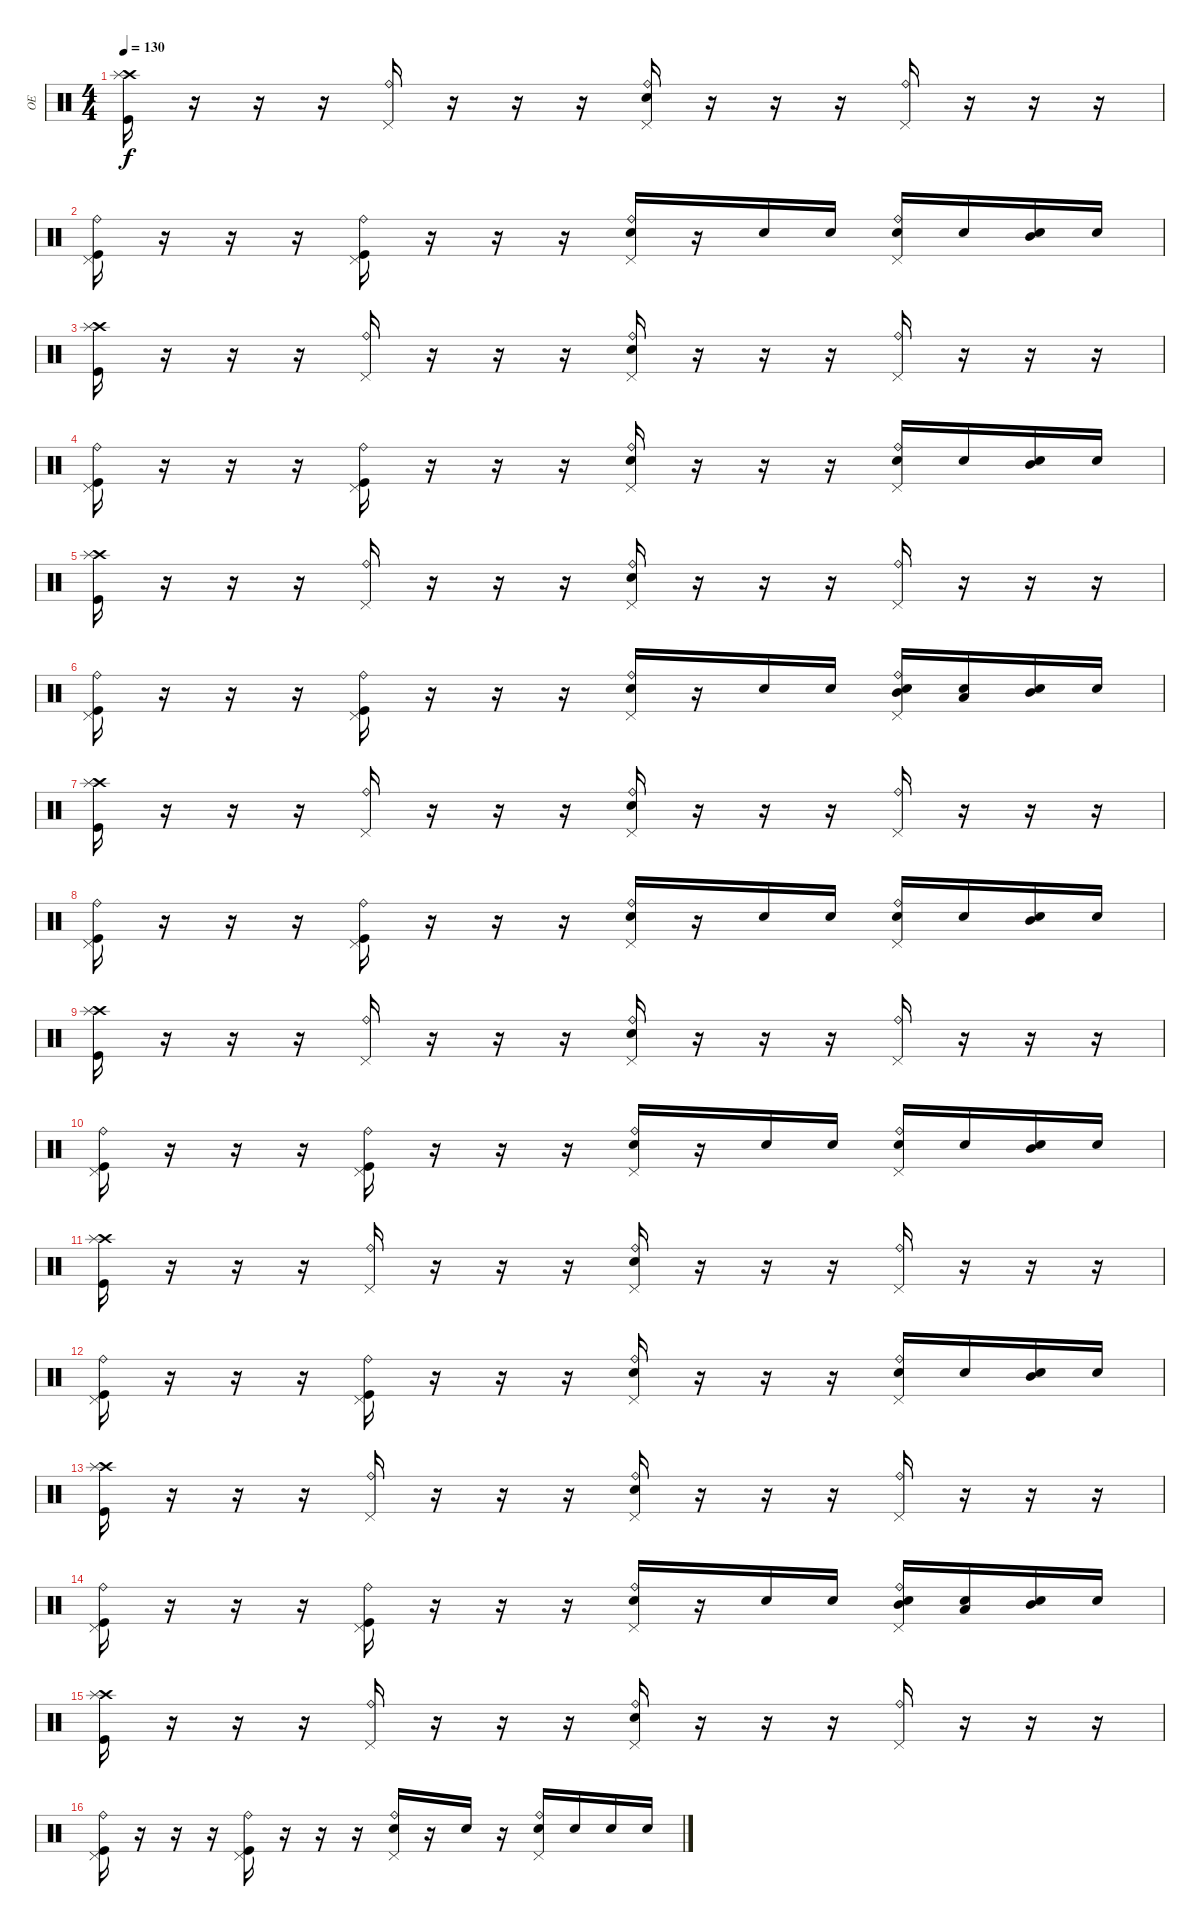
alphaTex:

\track ("OE" "OE") {instrument percussion}
\staff {score}
\articulation defaults
\ts (4 4)
\tempo 130
\clef neutral
\ks c
("Crash high (hit)" "Kick (hit)" "Splash (hit)").16{dy f} r.16 r.16 r.16 ("Pedal Hi-Hat (hit)" "Ride (bell)").16 r.16 r.16 r.16 ("Pedal Hi-Hat (hit)" "Ride (bell)" "Snare (hit) 2").16 r.16 r.16 r.16 ("Pedal Hi-Hat (hit)" "Ride (bell)").16 r.16 r.16 r.16 |
("Pedal Hi-Hat (hit)" "Ride (bell)" "Kick (hit)").16 r.16 r.16 r.16 ("Pedal Hi-Hat (hit)" "Kick (hit)" "Ride (bell)").16 r.16 r.16 r.16 ("Pedal Hi-Hat (hit)" "Snare (hit) 2" "Ride (bell)").16 r.16 "Snare (hit) 2".16 "Snare (hit) 2".16 ("Pedal Hi-Hat (hit)" "Ride (bell)" "Snare (hit) 2").16 "Snare (hit) 2".16 ("Snare (hit) 2" "Mid Tom (hit)").16 "Snare (hit) 2".16 |
("Crash high (hit)" "Kick (hit)" "Splash (hit)").16 r.16 r.16 r.16 ("Pedal Hi-Hat (hit)" "Ride (bell)").16 r.16 r.16 r.16 ("Pedal Hi-Hat (hit)" "Ride (bell)" "Snare (hit) 2").16 r.16 r.16 r.16 ("Pedal Hi-Hat (hit)" "Ride (bell)").16 r.16 r.16 r.16 |
("Pedal Hi-Hat (hit)" "Ride (bell)" "Kick (hit)").16 r.16 r.16 r.16 ("Pedal Hi-Hat (hit)" "Kick (hit)" "Ride (bell)").16 r.16 r.16 r.16 ("Pedal Hi-Hat (hit)" "Snare (hit) 2" "Ride (bell)").16 r.16 r.16 r.16 ("Pedal Hi-Hat (hit)" "Ride (bell)" "Snare (hit) 2").16 "Snare (hit) 2".16 ("Snare (hit) 2" "Mid Tom (hit)").16 "Snare (hit) 2".16 |
("Crash high (hit)" "Kick (hit)" "Splash (hit)").16 r.16 r.16 r.16 ("Pedal Hi-Hat (hit)" "Ride (bell)").16 r.16 r.16 r.16 ("Pedal Hi-Hat (hit)" "Ride (bell)" "Snare (hit) 2").16 r.16 r.16 r.16 ("Pedal Hi-Hat (hit)" "Ride (bell)").16 r.16 r.16 r.16 |
("Pedal Hi-Hat (hit)" "Ride (bell)" "Kick (hit)").16 r.16 r.16 r.16 ("Pedal Hi-Hat (hit)" "Kick (hit)" "Ride (bell)").16 r.16 r.16 r.16 ("Pedal Hi-Hat (hit)" "Snare (hit) 2" "Ride (bell)").16 r.16 "Snare (hit) 2".16 "Snare (hit) 2".16 ("Pedal Hi-Hat (hit)" "Ride (bell)" "Snare (hit) 2" "Mid Tom (hit)").16 ("Snare (hit) 2" "Low Tom (hit)").16 ("Snare (hit) 2" "Mid Tom (hit)").16 "Snare (hit) 2".16 |
("Crash high (hit)" "Kick (hit)" "Splash (hit)").16 r.16 r.16 r.16 ("Pedal Hi-Hat (hit)" "Ride (bell)").16 r.16 r.16 r.16 ("Pedal Hi-Hat (hit)" "Ride (bell)" "Snare (hit) 2").16 r.16 r.16 r.16 ("Pedal Hi-Hat (hit)" "Ride (bell)").16 r.16 r.16 r.16 |
("Pedal Hi-Hat (hit)" "Ride (bell)" "Kick (hit)").16 r.16 r.16 r.16 ("Pedal Hi-Hat (hit)" "Kick (hit)" "Ride (bell)").16 r.16 r.16 r.16 ("Pedal Hi-Hat (hit)" "Snare (hit) 2" "Ride (bell)").16 r.16 "Snare (hit) 2".16 "Snare (hit) 2".16 ("Pedal Hi-Hat (hit)" "Ride (bell)" "Snare (hit) 2").16 "Snare (hit) 2".16 ("Snare (hit) 2" "Mid Tom (hit)").16 "Snare (hit) 2".16 |
("Crash high (hit)" "Kick (hit)" "Splash (hit)").16 r.16 r.16 r.16 ("Pedal Hi-Hat (hit)" "Ride (bell)").16 r.16 r.16 r.16 ("Pedal Hi-Hat (hit)" "Ride (bell)" "Snare (hit) 2").16 r.16 r.16 r.16 ("Pedal Hi-Hat (hit)" "Ride (bell)").16 r.16 r.16 r.16 |
("Pedal Hi-Hat (hit)" "Ride (bell)" "Kick (hit)").16 r.16 r.16 r.16 ("Pedal Hi-Hat (hit)" "Kick (hit)" "Ride (bell)").16 r.16 r.16 r.16 ("Pedal Hi-Hat (hit)" "Snare (hit) 2" "Ride (bell)").16 r.16 "Snare (hit) 2".16 "Snare (hit) 2".16 ("Pedal Hi-Hat (hit)" "Ride (bell)" "Snare (hit) 2").16 "Snare (hit) 2".16 ("Snare (hit) 2" "Mid Tom (hit)").16 "Snare (hit) 2".16 |
("Crash high (hit)" "Kick (hit)" "Splash (hit)").16 r.16 r.16 r.16 ("Pedal Hi-Hat (hit)" "Ride (bell)").16 r.16 r.16 r.16 ("Pedal Hi-Hat (hit)" "Ride (bell)" "Snare (hit) 2").16 r.16 r.16 r.16 ("Pedal Hi-Hat (hit)" "Ride (bell)").16 r.16 r.16 r.16 |
("Pedal Hi-Hat (hit)" "Ride (bell)" "Kick (hit)").16 r.16 r.16 r.16 ("Pedal Hi-Hat (hit)" "Kick (hit)" "Ride (bell)").16 r.16 r.16 r.16 ("Pedal Hi-Hat (hit)" "Snare (hit) 2" "Ride (bell)").16 r.16 r.16 r.16 ("Pedal Hi-Hat (hit)" "Ride (bell)" "Snare (hit) 2").16 "Snare (hit) 2".16 ("Snare (hit) 2" "Mid Tom (hit)").16 "Snare (hit) 2".16 |
("Crash high (hit)" "Kick (hit)" "Splash (hit)").16 r.16 r.16 r.16 ("Pedal Hi-Hat (hit)" "Ride (bell)").16 r.16 r.16 r.16 ("Pedal Hi-Hat (hit)" "Ride (bell)" "Snare (hit) 2").16 r.16 r.16 r.16 ("Pedal Hi-Hat (hit)" "Ride (bell)").16 r.16 r.16 r.16 |
("Pedal Hi-Hat (hit)" "Ride (bell)" "Kick (hit)").16 r.16 r.16 r.16 ("Pedal Hi-Hat (hit)" "Kick (hit)" "Ride (bell)").16 r.16 r.16 r.16 ("Pedal Hi-Hat (hit)" "Snare (hit) 2" "Ride (bell)").16 r.16 "Snare (hit) 2".16 "Snare (hit) 2".16 ("Pedal Hi-Hat (hit)" "Ride (bell)" "Snare (hit) 2" "Mid Tom (hit)").16 ("Snare (hit) 2" "Low Tom (hit)").16 ("Snare (hit) 2" "Mid Tom (hit)").16 "Snare (hit) 2".16 |
("Crash high (hit)" "Kick (hit)" "Splash (hit)").16 r.16 r.16 r.16 ("Pedal Hi-Hat (hit)" "Ride (bell)").16 r.16 r.16 r.16 ("Pedal Hi-Hat (hit)" "Ride (bell)" "Snare (hit) 2").16 r.16 r.16 r.16 ("Pedal Hi-Hat (hit)" "Ride (bell)").16 r.16 r.16 r.16 |
("Pedal Hi-Hat (hit)" "Ride (bell)" "Kick (hit)").16 r.16 r.16 r.16 ("Pedal Hi-Hat (hit)" "Kick (hit)" "Ride (bell)").16 r.16 r.16 r.16 ("Pedal Hi-Hat (hit)" "Snare (hit) 2" "Ride (bell)").16 r.16 "Snare (hit) 2".16 r.16 ("Pedal Hi-Hat (hit)" "Ride (bell)" "Snare (hit) 2").16 "Snare (hit) 2".16 "Snare (hit) 2".16 "Snare (hit) 2".16
